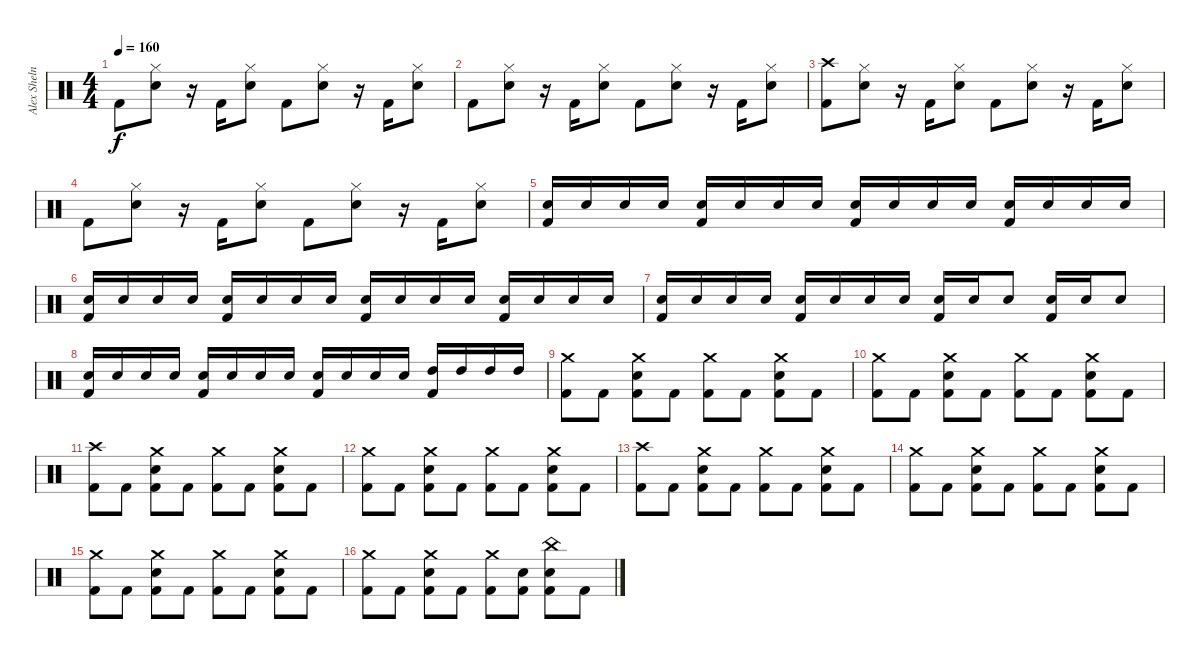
\track ("Alex Shelnutt" "Alex Sheln") {instrument percussion}
\staff {score}
\articulation defaults
\ts (4 4)
\tempo 160
\clef neutral
\ks c "Kick (hit) 2".8{dy f}
("Hi-Hat (closed)" "Electric Snare (hit)").8 r.16 "Kick (hit) 2".16 ("Hi-Hat (closed)" "Electric Snare (hit)").8 "Kick (hit) 2".8 ("Hi-Hat (closed)" "Electric Snare (hit)").8 r.16 "Kick (hit) 2".16 ("Hi-Hat (closed)" "Electric Snare (hit)").8 |
"Kick (hit) 2".8 ("Hi-Hat (closed)" "Electric Snare (hit)").8 r.16 "Kick (hit) 2".16 ("Hi-Hat (closed)" "Electric Snare (hit)").8 "Kick (hit) 2".8 ("Hi-Hat (closed)" "Electric Snare (hit)").8 r.16 "Kick (hit) 2".16 ("Hi-Hat (closed)" "Electric Snare (hit)").8 |
("Crash high (hit)" "Kick (hit) 2").8 ("Hi-Hat (closed)" "Electric Snare (hit)").8 r.16 "Kick (hit) 2".16 ("Hi-Hat (closed)" "Electric Snare (hit)").8 "Kick (hit) 2".8 ("Hi-Hat (closed)" "Electric Snare (hit)").8 r.16 "Kick (hit) 2".16 ("Hi-Hat (closed)" "Electric Snare (hit)").8 |
"Kick (hit) 2".8 ("Hi-Hat (closed)" "Electric Snare (hit)").8 r.16 "Kick (hit) 2".16 ("Hi-Hat (closed)" "Electric Snare (hit)").8 "Kick (hit) 2".8 ("Hi-Hat (closed)" "Electric Snare (hit)").8 r.16 "Kick (hit) 2".16 ("Hi-Hat (closed)" "Electric Snare (hit)").8 |
("Electric Snare (hit)" "Kick (hit) 2").16 "Electric Snare (hit)".16 "Electric Snare (hit)".16 "Electric Snare (hit)".16 ("Electric Snare (hit)" "Kick (hit) 2").16 "Electric Snare (hit)".16 "Electric Snare (hit)".16 "Electric Snare (hit)".16 ("Electric Snare (hit)" "Kick (hit) 2").16 "Electric Snare (hit)".16 "Electric Snare (hit)".16 "Electric Snare (hit)".16 ("Electric Snare (hit)" "Kick (hit) 2").16 "Electric Snare (hit)".16 "Electric Snare (hit)".16 "Electric Snare (hit)".16 |
("Electric Snare (hit)" "Kick (hit) 2").16 "Electric Snare (hit)".16 "Electric Snare (hit)".16 "Electric Snare (hit)".16 ("Electric Snare (hit)" "Kick (hit) 2").16 "Electric Snare (hit)".16 "Electric Snare (hit)".16 "Electric Snare (hit)".16 ("Electric Snare (hit)" "Kick (hit) 2").16 "Electric Snare (hit)".16 "Electric Snare (hit)".16 "Electric Snare (hit)".16 ("Electric Snare (hit)" "Kick (hit) 2").16 "Electric Snare (hit)".16 "Electric Snare (hit)".16 "Electric Snare (hit)".16 |
("Electric Snare (hit)" "Kick (hit) 2").16 "Electric Snare (hit)".16 "Electric Snare (hit)".16 "Electric Snare (hit)".16 ("Electric Snare (hit)" "Kick (hit) 2").16 "Electric Snare (hit)".16 "Electric Snare (hit)".16 "Electric Snare (hit)".16 ("Electric Snare (hit)" "Kick (hit) 2").16 "Electric Snare (hit)".16 "Electric Snare (hit)".8 ("Electric Snare (hit)" "Kick (hit) 2").16 "Electric Snare (hit)".16 "Electric Snare (hit)".8 |
("Electric Snare (hit)" "Kick (hit) 2").16 "Electric Snare (hit)".16 "Electric Snare (hit)".16 "Electric Snare (hit)".16 ("Electric Snare (hit)" "Kick (hit) 2").16 "Electric Snare (hit)".16 "Electric Snare (hit)".16 "Electric Snare (hit)".16 ("Electric Snare (hit)" "Kick (hit) 2").16 "Electric Snare (hit)".16 "Electric Snare (hit)".16 "Electric Snare (hit)".16 ("High Tom (hit)" "Kick (hit) 2").16 "High Tom (hit)".16 "High Tom (hit)".16 "High Tom (hit)".16 |
("Crash medium (hit)" "Kick (hit) 2").8 "Kick (hit) 2".8 ("Crash medium (hit)" "Electric Snare (hit)" "Kick (hit) 2").8 "Kick (hit) 2".8 ("Crash medium (hit)" "Kick (hit) 2").8 "Kick (hit) 2".8 ("Crash medium (hit)" "Electric Snare (hit)" "Kick (hit) 2").8 "Kick (hit) 2".8 |
("Crash medium (hit)" "Kick (hit) 2").8 "Kick (hit) 2".8 ("Crash medium (hit)" "Electric Snare (hit)" "Kick (hit) 2").8 "Kick (hit) 2".8 ("Crash medium (hit)" "Kick (hit) 2").8 "Kick (hit) 2".8 ("Crash medium (hit)" "Electric Snare (hit)" "Kick (hit) 2").8 "Kick (hit) 2".8 |
("Crash high (hit)" "Kick (hit) 2").8 "Kick (hit) 2".8 ("Crash medium (hit)" "Electric Snare (hit)" "Kick (hit) 2").8 "Kick (hit) 2".8 ("Crash medium (hit)" "Kick (hit) 2").8 "Kick (hit) 2".8 ("Crash medium (hit)" "Electric Snare (hit)" "Kick (hit) 2").8 "Kick (hit) 2".8 |
("Crash medium (hit)" "Kick (hit) 2").8 "Kick (hit) 2".8 ("Crash medium (hit)" "Electric Snare (hit)" "Kick (hit) 2").8 "Kick (hit) 2".8 ("Crash medium (hit)" "Kick (hit) 2").8 "Kick (hit) 2".8 ("Crash medium (hit)" "Electric Snare (hit)" "Kick (hit) 2").8 "Kick (hit) 2".8 |
("Crash high (hit)" "Kick (hit) 2").8 "Kick (hit) 2".8 ("Crash medium (hit)" "Electric Snare (hit)" "Kick (hit) 2").8 "Kick (hit) 2".8 ("Crash medium (hit)" "Kick (hit) 2").8 "Kick (hit) 2".8 ("Crash medium (hit)" "Electric Snare (hit)" "Kick (hit) 2").8 "Kick (hit) 2".8 |
("Crash medium (hit)" "Kick (hit) 2").8 "Kick (hit) 2".8 ("Crash medium (hit)" "Electric Snare (hit)" "Kick (hit) 2").8 "Kick (hit) 2".8 ("Crash medium (hit)" "Kick (hit) 2").8 "Kick (hit) 2".8 ("Crash medium (hit)" "Electric Snare (hit)" "Kick (hit) 2").8 "Kick (hit) 2".8 |
("Crash medium (hit)" "Kick (hit) 2").8 "Kick (hit) 2".8 ("Crash medium (hit)" "Electric Snare (hit)" "Kick (hit) 2").8 "Kick (hit) 2".8 ("Crash medium (hit)" "Kick (hit) 2").8 "Kick (hit) 2".8 ("Crash medium (hit)" "Electric Snare (hit)" "Kick (hit) 2").8 "Kick (hit) 2".8 |
("Crash medium (hit)" "Kick (hit) 2").8 "Kick (hit) 2".8 ("Crash medium (hit)" "Electric Snare (hit)" "Kick (hit) 2").8 "Kick (hit) 2".8 ("Crash medium (hit)" "Kick (hit) 2").8 ("Electric Snare (hit)" "Kick (hit) 2").8 ("China (hit)" "Electric Snare (hit)" "Kick (hit) 2").8 "Kick (hit) 2".8
